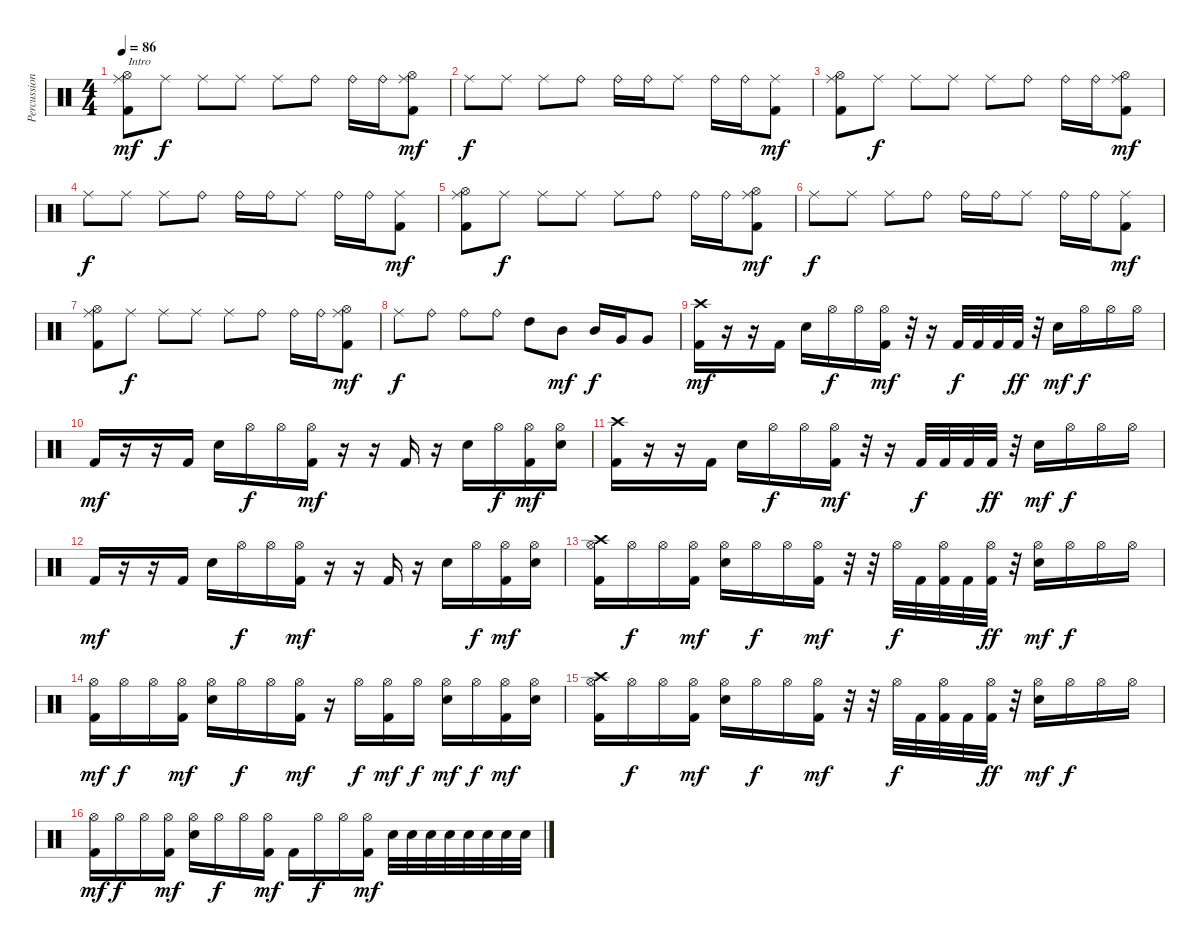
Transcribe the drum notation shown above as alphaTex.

\track ("Percussion" "Percussion") {instrument percussion}
\staff {score}
\articulation defaults
\ts (4 4)
\tempo 86
\clef neutral
\ks c
("Hi-Hat (open)" "Ride (middle)" "Kick (hit) 2").8{txt "Intro" dy mf} "Ride (middle)".8{dy f} "Ride (middle)".8 "Ride (middle)".8 "Ride (middle)".8 "Ride (bell)".8 "Ride (bell)".16 "Ride (bell)".16 ("Hi-Hat (open)" "Ride (middle)" "Kick (hit) 2").8{dy mf} |
"Ride (middle)".8{dy f} "Ride (middle)".8 "Ride (middle)".8 "Ride (bell)".8 "Ride (bell)".16 "Ride (bell)".16 "Ride (middle)".8 "Ride (bell)".16 "Ride (bell)".16 ("Ride (middle)" "Kick (hit) 2").8{dy mf} |
("Hi-Hat (open)" "Ride (middle)" "Kick (hit) 2").8 "Ride (middle)".8{dy f} "Ride (middle)".8 "Ride (middle)".8 "Ride (middle)".8 "Ride (bell)".8 "Ride (bell)".16 "Ride (bell)".16 ("Hi-Hat (open)" "Ride (middle)" "Kick (hit) 2").8{dy mf} |
"Ride (middle)".8{dy f} "Ride (middle)".8 "Ride (middle)".8 "Ride (bell)".8 "Ride (bell)".16 "Ride (bell)".16 "Ride (middle)".8 "Ride (bell)".16 "Ride (bell)".16 ("Ride (middle)" "Kick (hit) 2").8{dy mf} |
("Hi-Hat (open)" "Ride (middle)" "Kick (hit) 2").8 "Ride (middle)".8{dy f} "Ride (middle)".8 "Ride (middle)".8 "Ride (middle)".8 "Ride (bell)".8 "Ride (bell)".16 "Ride (bell)".16 ("Hi-Hat (open)" "Ride (middle)" "Kick (hit) 2").8{dy mf} |
"Ride (middle)".8{dy f} "Ride (middle)".8 "Ride (middle)".8 "Ride (bell)".8 "Ride (bell)".16 "Ride (bell)".16 "Ride (middle)".8 "Ride (bell)".16 "Ride (bell)".16 ("Ride (middle)" "Kick (hit) 2").8{dy mf} |
("Hi-Hat (open)" "Ride (middle)" "Kick (hit) 2").8 "Ride (middle)".8{dy f} "Ride (middle)".8 "Ride (middle)".8 "Ride (middle)".8 "Ride (bell)".8 "Ride (bell)".16 "Ride (bell)".16 ("Hi-Hat (open)" "Ride (middle)" "Kick (hit) 2").8{dy mf} |
"Ride (middle)".8{dy f} "Ride (bell)".8 "Ride (bell)".8 "Ride (bell)".8 "High Tom (hit)".8 "Mid Tom (hit)".8{dy mf} "Mid Tom (hit)".16{dy f} "Very Low Tom (hit)".16 "Very Low Tom (hit)".8 |
("Crash high (hit)" "Kick (hit) 2").16{dy mf} r.16 r.16 "Kick (hit) 2".16 "Electric Snare (hit)".16 "Hi-Hat (open)".16{dy f} "Hi-Hat (open)".16 ("Hi-Hat (open)" "Kick (hit) 2").16{dy mf} r.32 r.16 "Kick (hit) 2".32{dy f} "Kick (hit) 2".32 "Kick (hit) 2".32 "Kick (hit) 2".32{dy ff} r.32 "Electric Snare (hit)".16{dy mf} "Hi-Hat (open)".16{dy f} "Hi-Hat (open)".16 "Hi-Hat (open)".16 |
"Kick (hit) 2".16{dy mf} r.16 r.16 "Kick (hit) 2".16 "Electric Snare (hit)".16 "Hi-Hat (open)".16{dy f} "Hi-Hat (open)".16 ("Hi-Hat (open)" "Kick (hit) 2").16{dy mf} r.16 r.16 "Kick (hit) 2".16 r.16 "Electric Snare (hit)".16 "Hi-Hat (open)".16{dy f} ("Hi-Hat (open)" "Kick (hit) 2").16{dy mf} ("Hi-Hat (open)" "Electric Snare (hit)").16 |
("Crash high (hit)" "Kick (hit) 2").16 r.16 r.16 "Kick (hit) 2".16 "Electric Snare (hit)".16 "Hi-Hat (open)".16{dy f} "Hi-Hat (open)".16 ("Hi-Hat (open)" "Kick (hit) 2").16{dy mf} r.32 r.16 "Kick (hit) 2".32{dy f} "Kick (hit) 2".32 "Kick (hit) 2".32 "Kick (hit) 2".32{dy ff} r.32 "Electric Snare (hit)".16{dy mf} "Hi-Hat (open)".16{dy f} "Hi-Hat (open)".16 "Hi-Hat (open)".16 |
"Kick (hit) 2".16{dy mf} r.16 r.16 "Kick (hit) 2".16 "Electric Snare (hit)".16 "Hi-Hat (open)".16{dy f} "Hi-Hat (open)".16 ("Hi-Hat (open)" "Kick (hit) 2").16{dy mf} r.16 r.16 "Kick (hit) 2".16 r.16 "Electric Snare (hit)".16 "Hi-Hat (open)".16{dy f} ("Hi-Hat (open)" "Kick (hit) 2").16{dy mf} ("Hi-Hat (open)" "Electric Snare (hit)").16 |
("Crash high (hit)" "Hi-Hat (open)" "Kick (hit) 2").16 "Hi-Hat (open)".16{dy f} "Hi-Hat (open)".16 ("Hi-Hat (open)" "Kick (hit) 2").16{dy mf} ("Hi-Hat (open)" "Electric Snare (hit)").16 "Hi-Hat (open)".16{dy f} "Hi-Hat (open)".16 ("Hi-Hat (open)" "Kick (hit) 2").16{dy mf} r.32 r.32 "Hi-Hat (open)".32{dy f} "Kick (hit) 2".32 ("Hi-Hat (open)" "Kick (hit) 2").32 "Kick (hit) 2".32 ("Hi-Hat (open)" "Kick (hit) 2").32{dy ff} r.32 ("Hi-Hat (open)" "Electric Snare (hit)").16{dy mf} "Hi-Hat (open)".16{dy f} "Hi-Hat (open)".16 "Hi-Hat (open)".16 |
("Hi-Hat (open)" "Kick (hit) 2").16{dy mf} "Hi-Hat (open)".16{dy f} "Hi-Hat (open)".16 ("Hi-Hat (open)" "Kick (hit) 2").16{dy mf} ("Hi-Hat (open)" "Electric Snare (hit)").16 "Hi-Hat (open)".16{dy f} "Hi-Hat (open)".16 ("Hi-Hat (open)" "Kick (hit) 2").16{dy mf} r.16 "Hi-Hat (open)".16{dy f} ("Hi-Hat (open)" "Kick (hit) 2").16{dy mf} "Hi-Hat (open)".16{dy f} ("Hi-Hat (open)" "Electric Snare (hit)").16{dy mf} "Hi-Hat (open)".16{dy f} ("Hi-Hat (open)" "Kick (hit) 2").16{dy mf} ("Hi-Hat (open)" "Electric Snare (hit)").16 |
("Crash high (hit)" "Hi-Hat (open)" "Kick (hit) 2").16 "Hi-Hat (open)".16{dy f} "Hi-Hat (open)".16 ("Hi-Hat (open)" "Kick (hit) 2").16{dy mf} ("Hi-Hat (open)" "Electric Snare (hit)").16 "Hi-Hat (open)".16{dy f} "Hi-Hat (open)".16 ("Hi-Hat (open)" "Kick (hit) 2").16{dy mf} r.32 r.32 "Hi-Hat (open)".32{dy f} "Kick (hit) 2".32 ("Hi-Hat (open)" "Kick (hit) 2").32 "Kick (hit) 2".32 ("Hi-Hat (open)" "Kick (hit) 2").32{dy ff} r.32 ("Hi-Hat (open)" "Electric Snare (hit)").16{dy mf} "Hi-Hat (open)".16{dy f} "Hi-Hat (open)".16 "Hi-Hat (open)".16 |
("Hi-Hat (open)" "Kick (hit) 2").16{dy mf} "Hi-Hat (open)".16{dy f} "Hi-Hat (open)".16 ("Hi-Hat (open)" "Kick (hit) 2").16{dy mf} ("Hi-Hat (open)" "Electric Snare (hit)").16 "Hi-Hat (open)".16{dy f} "Hi-Hat (open)".16 ("Hi-Hat (open)" "Kick (hit) 2").16{dy mf} "Kick (hit) 2".16 "Hi-Hat (open)".16{dy f} "Hi-Hat (open)".16 ("Hi-Hat (open)" "Kick (hit) 2").16{dy mf} "Electric Snare (hit)".32 "Electric Snare (hit)".32 "Electric Snare (hit)".32 "Electric Snare (hit)".32 "Electric Snare (hit)".32 "Electric Snare (hit)".32 "Electric Snare (hit)".32 "Electric Snare (hit)".32
